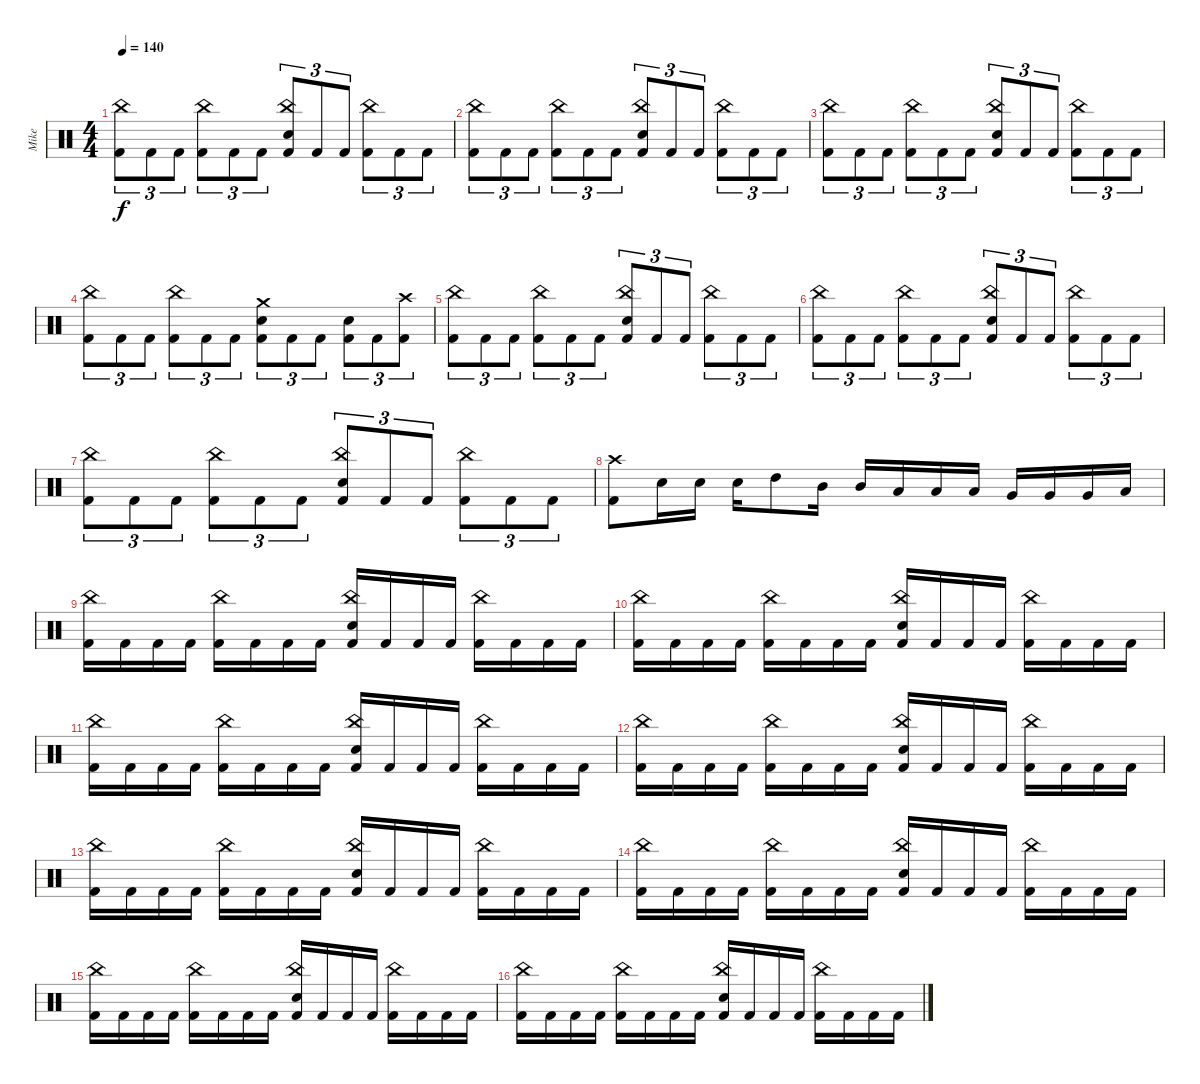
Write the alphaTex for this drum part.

\track ("Mike" "Mike") {instrument percussion}
\staff {score}
\articulation defaults
\ts (4 4)
\tempo 140
\clef neutral
\ks c
("Kick (hit) 2" "China (hit)").8{tu (3 2) dy f} "Kick (hit) 2".8{tu (3 2)} "Kick (hit) 2".8{tu (3 2)} ("Kick (hit) 2" "China (hit)").8{tu (3 2)} "Kick (hit) 2".8{tu (3 2)} "Kick (hit) 2".8{tu (3 2)} ("Kick (hit) 2" "Electric Snare (hit)" "China (hit)").8{tu (3 2)} "Kick (hit) 2".8{tu (3 2)} "Kick (hit) 2".8{tu (3 2)} ("Kick (hit) 2" "China (hit)").8{tu (3 2)} "Kick (hit) 2".8{tu (3 2)} "Kick (hit) 2".8{tu (3 2)} |
("Kick (hit) 2" "China (hit)").8{tu (3 2)} "Kick (hit) 2".8{tu (3 2)} "Kick (hit) 2".8{tu (3 2)} ("Kick (hit) 2" "China (hit)").8{tu (3 2)} "Kick (hit) 2".8{tu (3 2)} "Kick (hit) 2".8{tu (3 2)} ("Kick (hit) 2" "Electric Snare (hit)" "China (hit)").8{tu (3 2)} "Kick (hit) 2".8{tu (3 2)} "Kick (hit) 2".8{tu (3 2)} ("Kick (hit) 2" "China (hit)").8{tu (3 2)} "Kick (hit) 2".8{tu (3 2)} "Kick (hit) 2".8{tu (3 2)} |
("Kick (hit) 2" "China (hit)").8{tu (3 2)} "Kick (hit) 2".8{tu (3 2)} "Kick (hit) 2".8{tu (3 2)} ("Kick (hit) 2" "China (hit)").8{tu (3 2)} "Kick (hit) 2".8{tu (3 2)} "Kick (hit) 2".8{tu (3 2)} ("Kick (hit) 2" "Electric Snare (hit)" "China (hit)").8{tu (3 2)} "Kick (hit) 2".8{tu (3 2)} "Kick (hit) 2".8{tu (3 2)} ("Kick (hit) 2" "China (hit)").8{tu (3 2)} "Kick (hit) 2".8{tu (3 2)} "Kick (hit) 2".8{tu (3 2)} |
("Kick (hit) 2" "China (hit)").8{tu (3 2)} "Kick (hit) 2".8{tu (3 2)} "Kick (hit) 2".8{tu (3 2)} ("Kick (hit) 2" "China (hit)").8{tu (3 2)} "Kick (hit) 2".8{tu (3 2)} "Kick (hit) 2".8{tu (3 2)} ("Kick (hit) 2" "Electric Snare (hit)" "Crash medium (hit)").8{tu (3 2)} "Kick (hit) 2".8{tu (3 2)} "Kick (hit) 2".8{tu (3 2)} ("Kick (hit) 2" "Electric Snare (hit)").8{tu (3 2)} "Kick (hit) 2".8{tu (3 2)} ("Kick (hit) 2" "Crash high (hit)").8{tu (3 2)} |
("Kick (hit) 2" "China (hit)").8{tu (3 2)} "Kick (hit) 2".8{tu (3 2)} "Kick (hit) 2".8{tu (3 2)} ("Kick (hit) 2" "China (hit)").8{tu (3 2)} "Kick (hit) 2".8{tu (3 2)} "Kick (hit) 2".8{tu (3 2)} ("Kick (hit) 2" "Electric Snare (hit)" "China (hit)").8{tu (3 2)} "Kick (hit) 2".8{tu (3 2)} "Kick (hit) 2".8{tu (3 2)} ("Kick (hit) 2" "China (hit)").8{tu (3 2)} "Kick (hit) 2".8{tu (3 2)} "Kick (hit) 2".8{tu (3 2)} |
("Kick (hit) 2" "China (hit)").8{tu (3 2)} "Kick (hit) 2".8{tu (3 2)} "Kick (hit) 2".8{tu (3 2)} ("Kick (hit) 2" "China (hit)").8{tu (3 2)} "Kick (hit) 2".8{tu (3 2)} "Kick (hit) 2".8{tu (3 2)} ("Kick (hit) 2" "Electric Snare (hit)" "China (hit)").8{tu (3 2)} "Kick (hit) 2".8{tu (3 2)} "Kick (hit) 2".8{tu (3 2)} ("Kick (hit) 2" "China (hit)").8{tu (3 2)} "Kick (hit) 2".8{tu (3 2)} "Kick (hit) 2".8{tu (3 2)} |
("Kick (hit) 2" "China (hit)").8{tu (3 2)} "Kick (hit) 2".8{tu (3 2)} "Kick (hit) 2".8{tu (3 2)} ("Kick (hit) 2" "China (hit)").8{tu (3 2)} "Kick (hit) 2".8{tu (3 2)} "Kick (hit) 2".8{tu (3 2)} ("Kick (hit) 2" "Electric Snare (hit)" "China (hit)").8{tu (3 2)} "Kick (hit) 2".8{tu (3 2)} "Kick (hit) 2".8{tu (3 2)} ("Kick (hit) 2" "China (hit)").8{tu (3 2)} "Kick (hit) 2".8{tu (3 2)} "Kick (hit) 2".8{tu (3 2)} |
("Kick (hit) 2" "Crash high (hit)").8 "Electric Snare (hit)".16 "Electric Snare (hit)".16 "Electric Snare (hit)".16 "High Tom (hit)".8 "Mid Tom (hit)".16 "Mid Tom (hit)".16 "Low Tom (hit)".16 "Low Tom (hit)".16 "Low Tom (hit)".16 "Very Low Tom (hit)".16 "Very Low Tom (hit)".16 "Very Low Tom (hit)".16 "Low Floor Tom (hit)".16 |
("Kick (hit) 2" "China (hit)").16 "Kick (hit) 2".16 "Kick (hit) 2".16 "Kick (hit) 2".16 ("Kick (hit) 2" "China (hit)").16 "Kick (hit) 2".16 "Kick (hit) 2".16 "Kick (hit) 2".16 ("Kick (hit) 2" "Electric Snare (hit)" "China (hit)").16 "Kick (hit) 2".16 "Kick (hit) 2".16 "Kick (hit) 2".16 ("Kick (hit) 2" "China (hit)").16 "Kick (hit) 2".16 "Kick (hit) 2".16 "Kick (hit) 2".16 |
("Kick (hit) 2" "China (hit)").16 "Kick (hit) 2".16 "Kick (hit) 2".16 "Kick (hit) 2".16 ("Kick (hit) 2" "China (hit)").16 "Kick (hit) 2".16 "Kick (hit) 2".16 "Kick (hit) 2".16 ("Kick (hit) 2" "Electric Snare (hit)" "China (hit)").16 "Kick (hit) 2".16 "Kick (hit) 2".16 "Kick (hit) 2".16 ("Kick (hit) 2" "China (hit)").16 "Kick (hit) 2".16 "Kick (hit) 2".16 "Kick (hit) 2".16 |
("Kick (hit) 2" "China (hit)").16 "Kick (hit) 2".16 "Kick (hit) 2".16 "Kick (hit) 2".16 ("Kick (hit) 2" "China (hit)").16 "Kick (hit) 2".16 "Kick (hit) 2".16 "Kick (hit) 2".16 ("Kick (hit) 2" "Electric Snare (hit)" "China (hit)").16 "Kick (hit) 2".16 "Kick (hit) 2".16 "Kick (hit) 2".16 ("Kick (hit) 2" "China (hit)").16 "Kick (hit) 2".16 "Kick (hit) 2".16 "Kick (hit) 2".16 |
("Kick (hit) 2" "China (hit)").16 "Kick (hit) 2".16 "Kick (hit) 2".16 "Kick (hit) 2".16 ("Kick (hit) 2" "China (hit)").16 "Kick (hit) 2".16 "Kick (hit) 2".16 "Kick (hit) 2".16 ("Kick (hit) 2" "Electric Snare (hit)" "China (hit)").16 "Kick (hit) 2".16 "Kick (hit) 2".16 "Kick (hit) 2".16 ("Kick (hit) 2" "China (hit)").16 "Kick (hit) 2".16 "Kick (hit) 2".16 "Kick (hit) 2".16 |
("Kick (hit) 2" "China (hit)").16 "Kick (hit) 2".16 "Kick (hit) 2".16 "Kick (hit) 2".16 ("Kick (hit) 2" "China (hit)").16 "Kick (hit) 2".16 "Kick (hit) 2".16 "Kick (hit) 2".16 ("Kick (hit) 2" "Electric Snare (hit)" "China (hit)").16 "Kick (hit) 2".16 "Kick (hit) 2".16 "Kick (hit) 2".16 ("Kick (hit) 2" "China (hit)").16 "Kick (hit) 2".16 "Kick (hit) 2".16 "Kick (hit) 2".16 |
("Kick (hit) 2" "China (hit)").16 "Kick (hit) 2".16 "Kick (hit) 2".16 "Kick (hit) 2".16 ("Kick (hit) 2" "China (hit)").16 "Kick (hit) 2".16 "Kick (hit) 2".16 "Kick (hit) 2".16 ("Kick (hit) 2" "Electric Snare (hit)" "China (hit)").16 "Kick (hit) 2".16 "Kick (hit) 2".16 "Kick (hit) 2".16 ("Kick (hit) 2" "China (hit)").16 "Kick (hit) 2".16 "Kick (hit) 2".16 "Kick (hit) 2".16 |
("Kick (hit) 2" "China (hit)").16 "Kick (hit) 2".16 "Kick (hit) 2".16 "Kick (hit) 2".16 ("Kick (hit) 2" "China (hit)").16 "Kick (hit) 2".16 "Kick (hit) 2".16 "Kick (hit) 2".16 ("Kick (hit) 2" "Electric Snare (hit)" "China (hit)").16 "Kick (hit) 2".16 "Kick (hit) 2".16 "Kick (hit) 2".16 ("Kick (hit) 2" "China (hit)").16 "Kick (hit) 2".16 "Kick (hit) 2".16 "Kick (hit) 2".16 |
("Kick (hit) 2" "China (hit)").16 "Kick (hit) 2".16 "Kick (hit) 2".16 "Kick (hit) 2".16 ("Kick (hit) 2" "China (hit)").16 "Kick (hit) 2".16 "Kick (hit) 2".16 "Kick (hit) 2".16 ("Kick (hit) 2" "Electric Snare (hit)" "China (hit)").16 "Kick (hit) 2".16 "Kick (hit) 2".16 "Kick (hit) 2".16 ("Kick (hit) 2" "China (hit)").16 "Kick (hit) 2".16 "Kick (hit) 2".16 "Kick (hit) 2".16
